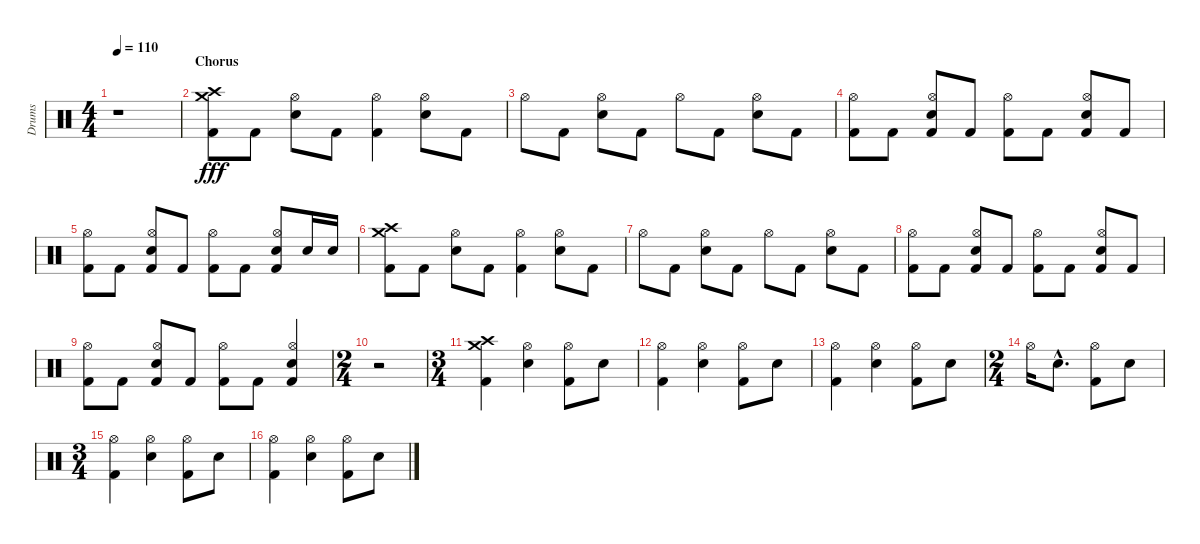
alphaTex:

\track ("Drums" "Drums") {instrument percussion}
\staff {score}
\articulation defaults
\ts (4 4)
\tempo 110
\clef neutral
\ks c
r.1{dy fff} |
\section ("" "Chorus")
("Crash high (hit)" "Crash medium (hit)" "Kick (hit) 2").8 "Kick (hit) 2".8 ("Hi-Hat (open)" "Electric Snare (hit)").8 "Kick (hit) 2".8 ("Hi-Hat (open)" "Kick (hit) 2").4 ("Hi-Hat (open)" "Electric Snare (hit)").8 "Kick (hit) 2".8 |
"Hi-Hat (open)".8 "Kick (hit) 2".8 ("Hi-Hat (open)" "Electric Snare (hit)").8 "Kick (hit) 2".8 "Hi-Hat (open)".8 "Kick (hit) 2".8 ("Hi-Hat (open)" "Electric Snare (hit)").8 "Kick (hit) 2".8 |
("Hi-Hat (open)" "Kick (hit) 2").8 "Kick (hit) 2".8 ("Hi-Hat (open)" "Electric Snare (hit)" "Kick (hit) 2").8 "Kick (hit) 2".8 ("Hi-Hat (open)" "Kick (hit) 2").8 "Kick (hit) 2".8 ("Hi-Hat (open)" "Electric Snare (hit)" "Kick (hit) 2").8 "Kick (hit) 2".8 |
("Hi-Hat (open)" "Kick (hit) 2").8 "Kick (hit) 2".8 ("Hi-Hat (open)" "Electric Snare (hit)" "Kick (hit) 2").8 "Kick (hit) 2".8 ("Hi-Hat (open)" "Kick (hit) 2").8 "Kick (hit) 2".8 ("Hi-Hat (open)" "Electric Snare (hit)" "Kick (hit) 2").8 "Electric Snare (hit)".16 "Electric Snare (hit)".16 |
("Crash high (hit)" "Crash medium (hit)" "Kick (hit) 2").8 "Kick (hit) 2".8 ("Hi-Hat (open)" "Electric Snare (hit)").8 "Kick (hit) 2".8 ("Hi-Hat (open)" "Kick (hit) 2").4 ("Hi-Hat (open)" "Electric Snare (hit)").8 "Kick (hit) 2".8 |
"Hi-Hat (open)".8 "Kick (hit) 2".8 ("Hi-Hat (open)" "Electric Snare (hit)").8 "Kick (hit) 2".8 "Hi-Hat (open)".8 "Kick (hit) 2".8 ("Hi-Hat (open)" "Electric Snare (hit)").8 "Kick (hit) 2".8 |
("Hi-Hat (open)" "Kick (hit) 2").8 "Kick (hit) 2".8 ("Hi-Hat (open)" "Electric Snare (hit)" "Kick (hit) 2").8 "Kick (hit) 2".8 ("Hi-Hat (open)" "Kick (hit) 2").8 "Kick (hit) 2".8 ("Hi-Hat (open)" "Electric Snare (hit)" "Kick (hit) 2").8 "Kick (hit) 2".8 |
("Hi-Hat (open)" "Kick (hit) 2").8 "Kick (hit) 2".8 ("Hi-Hat (open)" "Electric Snare (hit)" "Kick (hit) 2").8 "Kick (hit) 2".8 ("Hi-Hat (open)" "Kick (hit) 2").8 "Kick (hit) 2".8 ("Hi-Hat (open)" "Electric Snare (hit)" "Kick (hit) 2").4 |
\ts (2 4)
r.2 |
\ts (3 4)
("Crash high (hit)" "Crash medium (hit)" "Kick (hit) 2").4 ("Hi-Hat (open)" "Electric Snare (hit)").4 ("Hi-Hat (open)" "Kick (hit) 2").8 "Electric Snare (hit)".8 |
("Hi-Hat (open)" "Kick (hit) 2").4 ("Hi-Hat (open)" "Electric Snare (hit)").4 ("Hi-Hat (open)" "Kick (hit) 2").8 "Electric Snare (hit)".8 |
("Hi-Hat (open)" "Kick (hit) 2").4 ("Hi-Hat (open)" "Electric Snare (hit)").4 ("Hi-Hat (open)" "Kick (hit) 2").8 "Electric Snare (hit)".8 |
\ts (2 4)
"Hi-Hat (open)".16 "Electric Snare (hit)"{hac}.8{d} ("Hi-Hat (open)" "Kick (hit) 2").8 "Electric Snare (hit)".8 |
\ts (3 4)
("Hi-Hat (open)" "Kick (hit) 2").4 ("Hi-Hat (open)" "Electric Snare (hit)").4 ("Hi-Hat (open)" "Kick (hit) 2").8 "Electric Snare (hit)".8 |
("Hi-Hat (open)" "Kick (hit) 2").4 ("Hi-Hat (open)" "Electric Snare (hit)").4 ("Hi-Hat (open)" "Kick (hit) 2").8 "Electric Snare (hit)".8
